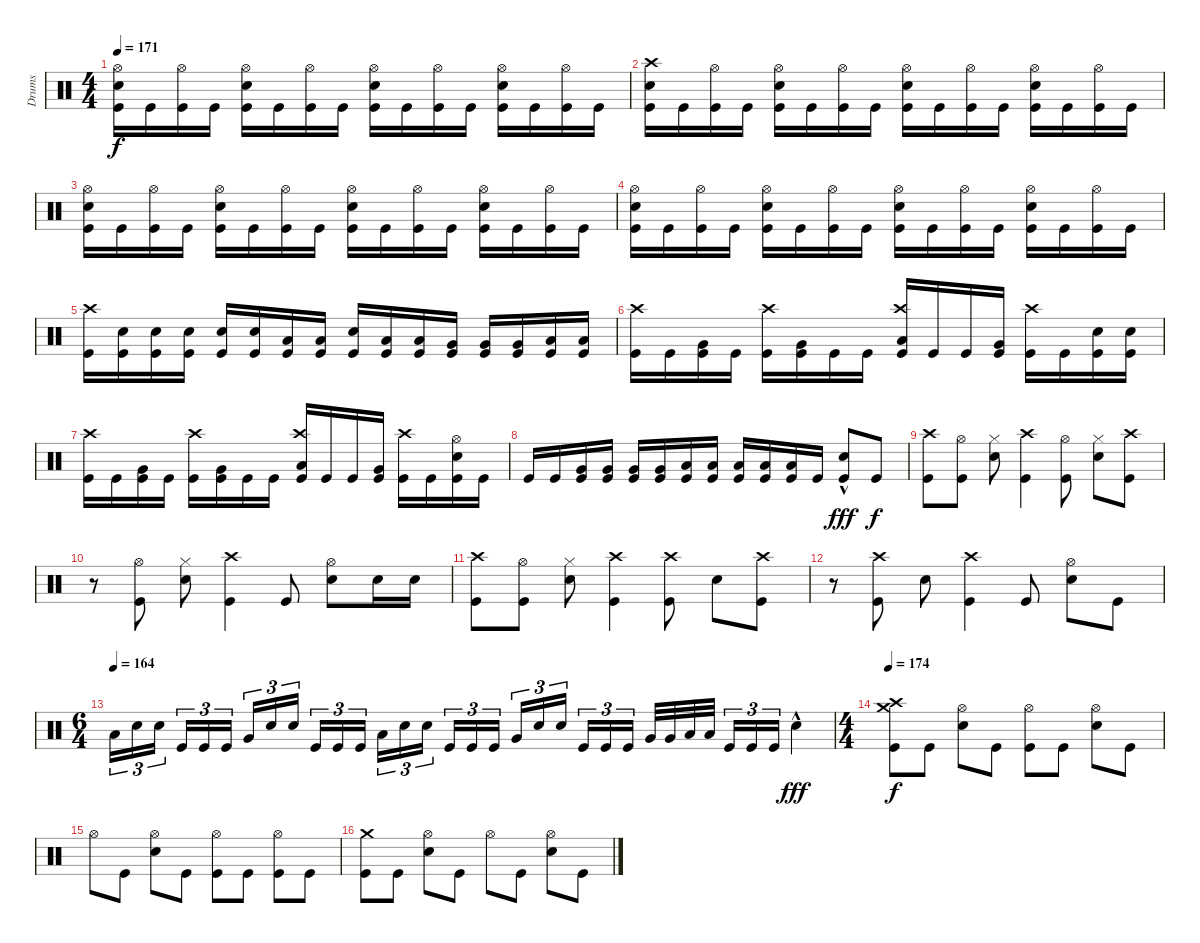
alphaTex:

\track ("Drums" "Drums") {instrument percussion}
\staff {score}
\articulation defaults
\ts (4 4)
\tempo 171
\clef neutral
\ks c
("Snare (hit) 2" "Hi-Hat (open)" "Kick (hit)").16{dy f} "Kick (hit)".16 ("Hi-Hat (open)" "Kick (hit)").16 "Kick (hit)".16 ("Snare (hit) 2" "Hi-Hat (open)" "Kick (hit)").16 "Kick (hit)".16 ("Hi-Hat (open)" "Kick (hit)").16 "Kick (hit)".16 ("Snare (hit) 2" "Hi-Hat (open)" "Kick (hit)").16 "Kick (hit)".16 ("Hi-Hat (open)" "Kick (hit)").16 "Kick (hit)".16 ("Snare (hit) 2" "Hi-Hat (open)" "Kick (hit)").16 "Kick (hit)".16 ("Hi-Hat (open)" "Kick (hit)").16 "Kick (hit)".16 |
("Snare (hit) 2" "Kick (hit)" "Crash high (hit)").16 "Kick (hit)".16 ("Hi-Hat (open)" "Kick (hit)").16 "Kick (hit)".16 ("Snare (hit) 2" "Hi-Hat (open)" "Kick (hit)").16 "Kick (hit)".16 ("Hi-Hat (open)" "Kick (hit)").16 "Kick (hit)".16 ("Snare (hit) 2" "Hi-Hat (open)" "Kick (hit)").16 "Kick (hit)".16 ("Hi-Hat (open)" "Kick (hit)").16 "Kick (hit)".16 ("Snare (hit) 2" "Hi-Hat (open)" "Kick (hit)").16 "Kick (hit)".16 ("Hi-Hat (open)" "Kick (hit)").16 "Kick (hit)".16 |
("Snare (hit) 2" "Hi-Hat (open)" "Kick (hit)").16 "Kick (hit)".16 ("Hi-Hat (open)" "Kick (hit)").16 "Kick (hit)".16 ("Snare (hit) 2" "Hi-Hat (open)" "Kick (hit)").16 "Kick (hit)".16 ("Hi-Hat (open)" "Kick (hit)").16 "Kick (hit)".16 ("Snare (hit) 2" "Hi-Hat (open)" "Kick (hit)").16 "Kick (hit)".16 ("Hi-Hat (open)" "Kick (hit)").16 "Kick (hit)".16 ("Snare (hit) 2" "Hi-Hat (open)" "Kick (hit)").16 "Kick (hit)".16 ("Hi-Hat (open)" "Kick (hit)").16 "Kick (hit)".16 |
("Snare (hit) 2" "Hi-Hat (open)" "Kick (hit)").16 "Kick (hit)".16 ("Hi-Hat (open)" "Kick (hit)").16 "Kick (hit)".16 ("Snare (hit) 2" "Hi-Hat (open)" "Kick (hit)").16 "Kick (hit)".16 ("Hi-Hat (open)" "Kick (hit)").16 "Kick (hit)".16 ("Snare (hit) 2" "Hi-Hat (open)" "Kick (hit)").16 "Kick (hit)".16 ("Hi-Hat (open)" "Kick (hit)").16 "Kick (hit)".16 ("Snare (hit) 2" "Hi-Hat (open)" "Kick (hit)").16 "Kick (hit)".16 ("Hi-Hat (open)" "Kick (hit)").16 "Kick (hit)".16 |
("Kick (hit)" "Crash high (hit)").16 ("Snare (hit) 2" "Kick (hit)").16 ("Snare (hit) 2" "Kick (hit)").16 ("Snare (hit) 2" "Kick (hit)").16 ("Snare (hit) 2" "Kick (hit)").16 ("Snare (hit) 2" "Kick (hit)").16 ("Low Tom (hit)" "Kick (hit)").16 ("Low Tom (hit)" "Kick (hit)").16 ("Snare (hit) 2" "Kick (hit)").16 ("Low Tom (hit)" "Kick (hit)").16 ("Low Tom (hit)" "Kick (hit)").16 ("Very Low Tom (hit)" "Kick (hit)").16 ("Very Low Tom (hit)" "Kick (hit)").16 ("Very Low Tom (hit)" "Kick (hit)").16 ("Kick (hit)" "Low Floor Tom (hit)").16 ("Kick (hit)" "Low Floor Tom (hit)").16 |
("Kick (hit)" "Crash high (hit)").16 "Kick (hit)".16 ("Very Low Tom (hit)" "Kick (hit)").16 "Kick (hit)".16 ("Kick (hit)" "Crash high (hit)").16 ("Very Low Tom (hit)" "Kick (hit)").16 "Kick (hit)".16 "Kick (hit)".16 ("Kick (hit)" "Crash high (hit)" "Low Floor Tom (hit)").16 "Kick (hit)".16 "Kick (hit)".16 ("Very Low Tom (hit)" "Kick (hit)").16 ("Kick (hit)" "Crash high (hit)").16 "Kick (hit)".16 ("Snare (hit) 2" "Kick (hit)").16 ("Snare (hit) 2" "Kick (hit)").16 |
("Kick (hit)" "Crash high (hit)").16 "Kick (hit)".16 ("Very Low Tom (hit)" "Kick (hit)").16 "Kick (hit)".16 ("Kick (hit)" "Crash high (hit)").16 ("Very Low Tom (hit)" "Kick (hit)").16 "Kick (hit)".16 "Kick (hit)".16 ("Kick (hit)" "Crash high (hit)" "Low Floor Tom (hit)").16 "Kick (hit)".16 "Kick (hit)".16 ("Very Low Tom (hit)" "Kick (hit)").16 ("Kick (hit)" "Crash high (hit)").16 "Kick (hit)".16 ("Snare (hit) 2" "Hi-Hat (open)" "Kick (hit)").16 "Kick (hit)".16 |
"Kick (hit)".16 "Kick (hit)".16 ("Very Low Tom (hit)" "Kick (hit)").16 ("Very Low Tom (hit)" "Kick (hit)").16 ("Very Low Tom (hit)" "Kick (hit)").16 ("Very Low Tom (hit)" "Kick (hit)").16 ("Kick (hit)" "Low Floor Tom (hit)").16 ("Kick (hit)" "Low Floor Tom (hit)").16 ("Kick (hit)" "Low Floor Tom (hit)").16 ("Kick (hit)" "Low Floor Tom (hit)").16 ("Kick (hit)" "Low Floor Tom (hit)").16 "Kick (hit)".16 ("Snare (hit) 2"{hac} "Kick (hit)").8{dy fff} "Kick (hit)".8{dy f} |
("Kick (hit)" "Crash high (hit)").8 ("Hi-Hat (open)" "Kick (hit)").8 ("Snare (hit) 2" "Hi-Hat (closed)").8 ("Kick (hit)" "Crash high (hit)").4 ("Hi-Hat (open)" "Kick (hit)").8 ("Snare (hit) 2" "Hi-Hat (closed)").8 ("Kick (hit)" "Crash high (hit)").8 |
r.8 ("Hi-Hat (open)" "Kick (hit)").8 ("Snare (hit) 2" "Hi-Hat (closed)").8 ("Kick (hit)" "Crash high (hit)").4 "Kick (hit)".8 ("Snare (hit) 2" "Hi-Hat (open)").8 "Snare (hit) 2".16 "Snare (hit) 2".16 |
("Kick (hit)" "Crash high (hit)").8 ("Hi-Hat (open)" "Kick (hit)").8 ("Snare (hit) 2" "Hi-Hat (closed)").8 ("Kick (hit)" "Crash high (hit)").4 ("Kick (hit)" "Crash high (hit)").8 "Snare (hit) 2".8 ("Kick (hit)" "Crash high (hit)").8 |
r.8 ("Kick (hit)" "Crash high (hit)").8 "Snare (hit) 2".8 ("Kick (hit)" "Crash high (hit)").4 "Kick (hit)".8 ("Snare (hit) 2" "Hi-Hat (open)").8 "Kick (hit)".8 |
\ts (6 4)
\tempo (164)
"Low Tom (hit)".16{tu (3 2)} "Snare (hit) 2".16{tu (3 2)} "Snare (hit) 2".16{tu (3 2) beam splitsecondary} "Kick (hit)".16{tu (3 2)} "Kick (hit)".16{tu (3 2)} "Kick (hit)".16{tu (3 2) beam splitsecondary} "Very Low Tom (hit)".16{tu (3 2)} "Snare (hit) 2".16{tu (3 2)} "Snare (hit) 2".16{tu (3 2) beam splitsecondary} "Kick (hit)".16{tu (3 2)} "Kick (hit)".16{tu (3 2)} "Kick (hit)".16{tu (3 2) beam splitsecondary} "Low Tom (hit)".16{tu (3 2)} "Snare (hit) 2".16{tu (3 2)} "Snare (hit) 2".16{tu (3 2) beam splitsecondary} "Kick (hit)".16{tu (3 2)} "Kick (hit)".16{tu (3 2)} "Kick (hit)".16{tu (3 2)} "Very Low Tom (hit)".16{tu (3 2)} "Snare (hit) 2".16{tu (3 2)} "Snare (hit) 2".16{tu (3 2) beam splitsecondary} "Kick (hit)".16{tu (3 2)} "Kick (hit)".16{tu (3 2)} "Kick (hit)".16{tu (3 2) beam splitsecondary} "Very Low Tom (hit)".32 "Very Low Tom (hit)".32 "Low Floor Tom (hit)".32 "Low Floor Tom (hit)".32{beam splitsecondary} "Kick (hit)".16{tu (3 2)} "Kick (hit)".16{tu (3 2)} "Kick (hit)".16{tu (3 2)} "Snare (hit) 2"{hac}.4{dy fff} |
\ts (4 4)
\tempo 174
("Crash medium (hit)" "Kick (hit)" "Crash high (hit)").8{dy f} "Kick (hit)".8 ("Snare (hit) 2" "Hi-Hat (open)").8 "Kick (hit)".8 ("Hi-Hat (open)" "Kick (hit)").8 "Kick (hit)".8 ("Snare (hit) 2" "Hi-Hat (open)").8 "Kick (hit)".8 |
"Hi-Hat (open)".8 "Kick (hit)".8 ("Snare (hit) 2" "Hi-Hat (open)").8 "Kick (hit)".8 ("Hi-Hat (open)" "Kick (hit)").8 "Kick (hit)".8 ("Kick (hit)" "Hi-Hat (open)").8 "Kick (hit)".8 |
("Kick (hit)" "Crash medium (hit)").8 "Kick (hit)".8 ("Snare (hit) 2" "Hi-Hat (open)").8 "Kick (hit)".8 "Hi-Hat (open)".8 "Kick (hit)".8 ("Snare (hit) 2" "Hi-Hat (open)").8 "Kick (hit)".8
